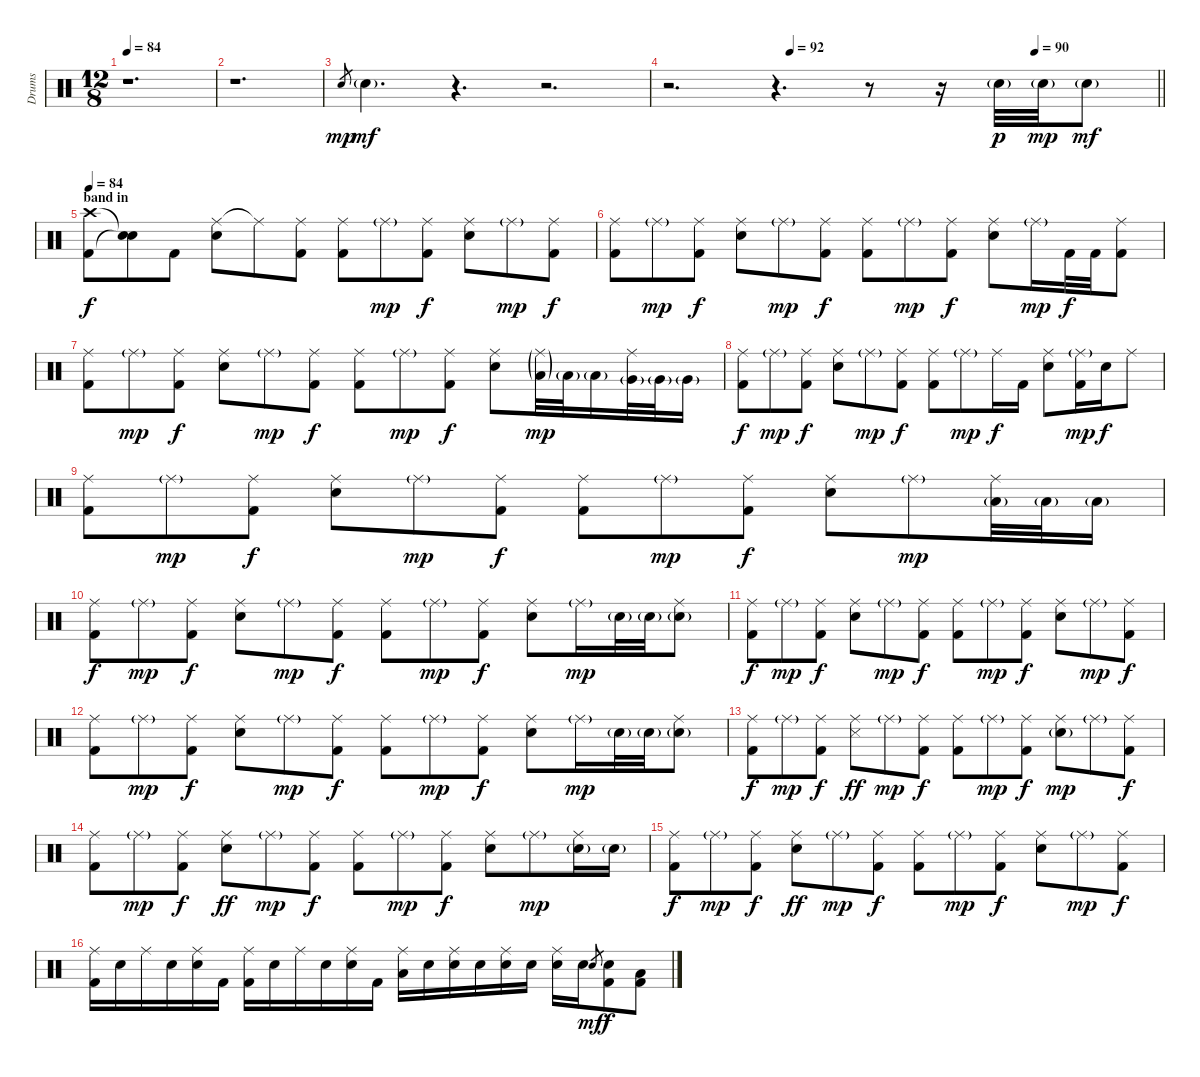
\track ("Drums" "Drums") {instrument percussion}
\staff {score}
\articulation defaults
\ts (12 8)
\tempo 84
\tempo 90
\tempo 84
\clef neutral
\ks c
r.1{d dy mp} |
r.1{d} |
"Electric Snare (hit)".8{gr} "Electric Snare (hit)"{g}.4{d dy mf} r.4{d} r.2{d} |
\tempo (92 0.25)
\tempo (90 0.75)
\barLineRight lightlight
r.2{d} r.4{d} r.8 r.16 "Electric Snare (hit)"{g}.32{dy p} "Electric Snare (hit)"{g}.32{dy mp} "Electric Snare (hit)"{g}.8{dy mf} |
\section ("" "band in")
\tempo 84
("Crash high (hit)" "Kick (hit) 2").8{dy f volume 11} ("Snare (hit)"{t} "Snare (hit)"{t}).8 "Kick (hit) 2".8 ("Ride (middle)" "Electric Snare (hit)").8 "Ride (middle)"{t}.8 ("Ride (middle)" "Kick (hit) 2").8 ("Ride (middle)" "Kick (hit) 2").8 "Ride (middle)"{g}.8{dy mp} ("Ride (middle)" "Kick (hit) 2").8{dy f} ("Ride (middle)" "Electric Snare (hit)").8 "Ride (middle)"{g}.8{dy mp} ("Ride (middle)" "Kick (hit) 2").8{dy f} |
("Ride (middle)" "Kick (hit) 2").8 "Ride (middle)"{g}.8{dy mp} ("Ride (middle)" "Kick (hit) 2").8{dy f} ("Ride (middle)" "Electric Snare (hit)").8 "Ride (middle)"{g}.8{dy mp} ("Ride (middle)" "Kick (hit) 2").8{dy f} ("Ride (middle)" "Kick (hit) 2").8 "Ride (middle)"{g}.8{dy mp} ("Ride (middle)" "Kick (hit) 2").8{dy f} ("Ride (middle)" "Electric Snare (hit)").8 "Ride (middle)"{g}.16{dy mp} "Kick (hit) 2".32{dy f} "Kick (hit) 2".32 ("Ride (middle)" "Kick (hit) 2").8 |
("Ride (middle)" "Kick (hit) 2").8 "Ride (middle)"{g}.8{dy mp} ("Ride (middle)" "Kick (hit) 2").8{dy f} ("Ride (middle)" "Electric Snare (hit)").8 "Ride (middle)"{g}.8{dy mp} ("Ride (middle)" "Kick (hit) 2").8{dy f} ("Ride (middle)" "Kick (hit) 2").8 "Ride (middle)"{g}.8{dy mp} ("Ride (middle)" "Kick (hit) 2").8{dy f} ("Ride (middle)" "Electric Snare (hit)").8 ("Ride (middle)"{g} "Low Tom (hit)"{g}).32{dy mp} "Low Tom (hit)"{g}.32 "Low Tom (hit)"{g}.16 ("Ride (middle)" "Very Low Tom (hit)"{g}).32 "Very Low Tom (hit)"{g}.32 "Very Low Tom (hit)"{g}.16 |
("Ride (middle)" "Kick (hit) 2").8{dy f} "Ride (middle)"{g}.8{dy mp} ("Ride (middle)" "Kick (hit) 2").8{dy f} ("Ride (middle)" "Electric Snare (hit)").8 "Ride (middle)"{g}.8{dy mp} ("Ride (middle)" "Kick (hit) 2").8{dy f} ("Ride (middle)" "Kick (hit) 2").8 "Ride (middle)"{g}.8{dy mp} "Ride (middle)".16{dy f} "Kick (hit) 2".16 ("Ride (middle)" "Electric Snare (hit)").8 ("Ride (middle)"{g} "Kick (hit) 2").16{dy mp} "Electric Snare (hit)".16{dy f} "Ride (middle)".8 |
("Ride (middle)" "Kick (hit) 2").8{volume 12} "Ride (middle)"{g}.8{dy mp} ("Ride (middle)" "Kick (hit) 2").8{dy f} ("Ride (middle)" "Electric Snare (hit)").8 "Ride (middle)"{g}.8{dy mp} ("Ride (middle)" "Kick (hit) 2").8{dy f} ("Ride (middle)" "Kick (hit) 2").8 "Ride (middle)"{g}.8{dy mp} ("Ride (middle)" "Kick (hit) 2").8{dy f} ("Ride (middle)" "Electric Snare (hit)").8 "Ride (middle)"{g}.8{dy mp} ("Ride (middle)" "Low Tom (hit)"{g}).32 "Low Tom (hit)"{g}.32 "Low Tom (hit)"{g}.16 |
("Ride (middle)" "Kick (hit) 2").8{dy f} "Ride (middle)"{g}.8{dy mp} ("Ride (middle)" "Kick (hit) 2").8{dy f} ("Ride (middle)" "Electric Snare (hit)").8 "Ride (middle)"{g}.8{dy mp} ("Ride (middle)" "Kick (hit) 2").8{dy f} ("Ride (middle)" "Kick (hit) 2").8 "Ride (middle)"{g}.8{dy mp} ("Ride (middle)" "Kick (hit) 2").8{dy f} ("Ride (middle)" "Electric Snare (hit)").8 "Ride (middle)"{g}.16{dy mp} "Electric Snare (hit)"{g}.32 "Electric Snare (hit)"{g}.32 ("Ride (middle)" "Electric Snare (hit)"{g}).8 |
("Ride (middle)" "Kick (hit) 2").8{dy f} "Ride (middle)"{g}.8{dy mp} ("Ride (middle)" "Kick (hit) 2").8{dy f} ("Ride (middle)" "Electric Snare (hit)").8 "Ride (middle)"{g}.8{dy mp} ("Ride (middle)" "Kick (hit) 2").8{dy f} ("Ride (middle)" "Kick (hit) 2").8 "Ride (middle)"{g}.8{dy mp} ("Ride (middle)" "Kick (hit) 2").8{dy f} ("Ride (middle)" "Electric Snare (hit)").8 "Ride (middle)"{g}.8{dy mp} ("Ride (middle)" "Kick (hit) 2").8{dy f} |
("Ride (middle)" "Kick (hit) 2").8 "Ride (middle)"{g}.8{dy mp} ("Ride (middle)" "Kick (hit) 2").8{dy f} ("Ride (middle)" "Electric Snare (hit)").8 "Ride (middle)"{g}.8{dy mp} ("Ride (middle)" "Kick (hit) 2").8{dy f} ("Ride (middle)" "Kick (hit) 2").8 "Ride (middle)"{g}.8{dy mp} ("Ride (middle)" "Kick (hit) 2").8{dy f} ("Ride (middle)" "Electric Snare (hit)").8 "Ride (middle)"{g}.16{dy mp} "Electric Snare (hit)"{g}.32 "Electric Snare (hit)"{g}.32 ("Ride (middle)" "Electric Snare (hit)"{g}).8 |
("Ride (middle)" "Kick (hit) 2").8{dy f volume 13} "Ride (middle)"{g}.8{dy mp} ("Ride (middle)" "Kick (hit) 2").8{dy f} ("Ride (middle)" "Metronome (hit)").8{dy ff} "Ride (middle)"{g}.8{dy mp} ("Ride (middle)" "Kick (hit) 2").8{dy f} ("Ride (middle)" "Kick (hit) 2").8 "Ride (middle)"{g}.8{dy mp} ("Ride (middle)" "Kick (hit) 2").8{dy f} ("Ride (middle)" "Electric Snare (hit)"{g}).8{dy mp} "Ride (middle)"{g}.8 ("Ride (middle)" "Kick (hit) 2").8{dy f} |
("Ride (middle)" "Kick (hit) 2").8 "Ride (middle)"{g}.8{dy mp} ("Ride (middle)" "Kick (hit) 2").8{dy f} ("Ride (middle)" "Electric Snare (hit)").8{dy ff} "Ride (middle)"{g}.8{dy mp} ("Ride (middle)" "Kick (hit) 2").8{dy f} ("Ride (middle)" "Kick (hit) 2").8 "Ride (middle)"{g}.8{dy mp} ("Ride (middle)" "Kick (hit) 2").8{dy f} ("Ride (middle)" "Electric Snare (hit)").8 "Ride (middle)"{g}.8{dy mp} ("Ride (middle)" "Electric Snare (hit)"{g}).16 "Electric Snare (hit)"{g}.16 |
("Ride (middle)" "Kick (hit) 2").8{dy f} "Ride (middle)"{g}.8{dy mp} ("Ride (middle)" "Kick (hit) 2").8{dy f} ("Ride (middle)" "Electric Snare (hit)").8{dy ff} "Ride (middle)"{g}.8{dy mp} ("Ride (middle)" "Kick (hit) 2").8{dy f} ("Ride (middle)" "Kick (hit) 2").8 "Ride (middle)"{g}.8{dy mp} ("Ride (middle)" "Kick (hit) 2").8{dy f} ("Ride (middle)" "Electric Snare (hit)").8 "Ride (middle)"{g}.8{dy mp} ("Ride (middle)" "Kick (hit) 2").8{dy f} |
("Ride (middle)" "Kick (hit) 2").16 "Electric Snare (hit)".16 "Ride (middle)".16 "Electric Snare (hit)".16 ("Ride (middle)" "Electric Snare (hit)").16 "Kick (hit) 2".16 ("Ride (middle)" "Kick (hit) 2").16 "Electric Snare (hit)".16 "Ride (middle)".16 "Electric Snare (hit)".16 ("Ride (middle)" "Electric Snare (hit)").16 "Kick (hit) 2".16 ("Ride (middle)" "Low Tom (hit)").16 "Electric Snare (hit)".16 ("Ride (middle)" "Electric Snare (hit)").16 "Electric Snare (hit)".16 ("Ride (middle)" "Electric Snare (hit)").16 "Electric Snare (hit)".16 ("Ride (middle)" "Electric Snare (hit)").16 "Electric Snare (hit)".16 "Electric Snare (hit)".8{gr dy mf} ("Electric Snare (hit)" "Kick (hit) 2").8{dy f} ("Low Tom (hit)" "Kick (hit) 2").8
